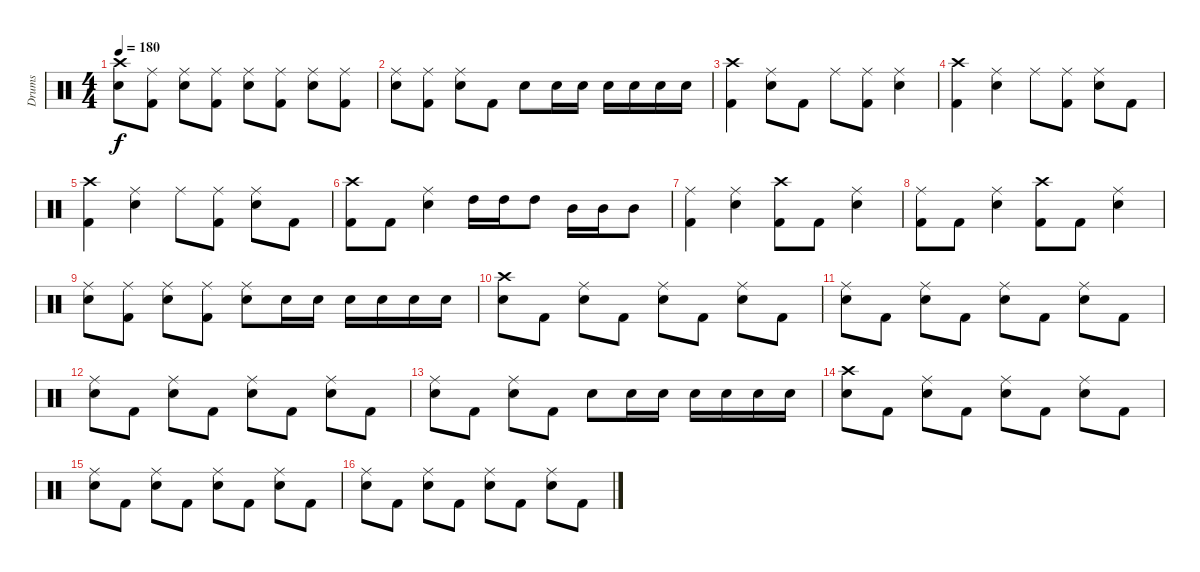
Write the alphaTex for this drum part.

\track ("Drums" "Drums") {instrument percussion}
\staff {score}
\articulation defaults
\ts (4 4)
\tempo 180
\clef neutral
\ks c
("Crash high (hit)" "Electric Snare (hit)").8{dy f} ("Ride (middle)" "Kick (hit) 2").8 ("Ride (middle)" "Electric Snare (hit)").8 ("Ride (middle)" "Kick (hit) 2").8 ("Ride (middle)" "Electric Snare (hit)").8 ("Ride (middle)" "Kick (hit) 2").8 ("Ride (middle)" "Electric Snare (hit)").8 ("Ride (middle)" "Kick (hit) 2").8 |
("Ride (middle)" "Electric Snare (hit)").8 ("Ride (middle)" "Kick (hit) 2").8 ("Ride (middle)" "Electric Snare (hit)").8 "Kick (hit) 2".8 "Electric Snare (hit)".8 "Electric Snare (hit)".16 "Electric Snare (hit)".16 "Electric Snare (hit)".16 "Electric Snare (hit)".16 "Electric Snare (hit)".16 "Electric Snare (hit)".16 |
("Crash high (hit)" "Kick (hit) 2").4 ("Ride (middle)" "Electric Snare (hit)").8 "Kick (hit) 2".8 "Ride (middle)".8 ("Ride (middle)" "Kick (hit) 2").8 ("Ride (middle)" "Electric Snare (hit)").4 |
("Crash high (hit)" "Kick (hit) 2").4 ("Ride (middle)" "Electric Snare (hit)").4 "Ride (middle)".8 ("Ride (middle)" "Kick (hit) 2").8 ("Ride (middle)" "Electric Snare (hit)").8 "Kick (hit) 2".8 |
("Crash high (hit)" "Kick (hit) 2").4 ("Ride (middle)" "Electric Snare (hit)").4 "Ride (middle)".8 ("Ride (middle)" "Kick (hit) 2").8 ("Ride (middle)" "Electric Snare (hit)").8 "Kick (hit) 2".8 |
("Crash high (hit)" "Kick (hit) 2").8 "Kick (hit) 2".8 ("Ride (middle)" "Electric Snare (hit)").4 "High Tom (hit)".16 "High Tom (hit)".16 "High Tom (hit)".8 "Mid Tom (hit)".16 "Mid Tom (hit)".16 "Mid Tom (hit)".8 |
("Ride (middle)" "Kick (hit) 2").4 ("Ride (middle)" "Electric Snare (hit)").4 ("Crash high (hit)" "Kick (hit) 2").8 "Kick (hit) 2".8 ("Ride (middle)" "Electric Snare (hit)").4 |
("Ride (middle)" "Kick (hit) 2").8 "Kick (hit) 2".8 ("Ride (middle)" "Electric Snare (hit)").4 ("Crash high (hit)" "Kick (hit) 2").8 "Kick (hit) 2".8 ("Ride (middle)" "Electric Snare (hit)").4 |
("Ride (middle)" "Electric Snare (hit)").8 ("Ride (middle)" "Kick (hit) 2").8 ("Ride (middle)" "Electric Snare (hit)").8 ("Ride (middle)" "Kick (hit) 2").8 ("Ride (middle)" "Electric Snare (hit)").8 "Electric Snare (hit)".16 "Electric Snare (hit)".16 "Electric Snare (hit)".16 "Electric Snare (hit)".16 "Electric Snare (hit)".16 "Electric Snare (hit)".16 |
("Crash high (hit)" "Electric Snare (hit)").8 "Kick (hit) 2".8 ("Ride (middle)" "Electric Snare (hit)").8 "Kick (hit) 2".8 ("Ride (middle)" "Electric Snare (hit)").8 "Kick (hit) 2".8 ("Ride (middle)" "Electric Snare (hit)").8 "Kick (hit) 2".8 |
("Ride (middle)" "Electric Snare (hit)").8 "Kick (hit) 2".8 ("Ride (middle)" "Electric Snare (hit)").8 "Kick (hit) 2".8 ("Ride (middle)" "Electric Snare (hit)").8 "Kick (hit) 2".8 ("Ride (middle)" "Electric Snare (hit)").8 "Kick (hit) 2".8 |
("Ride (middle)" "Electric Snare (hit)").8 "Kick (hit) 2".8 ("Ride (middle)" "Electric Snare (hit)").8 "Kick (hit) 2".8 ("Ride (middle)" "Electric Snare (hit)").8 "Kick (hit) 2".8 ("Ride (middle)" "Electric Snare (hit)").8 "Kick (hit) 2".8 |
("Ride (middle)" "Electric Snare (hit)").8 "Kick (hit) 2".8 ("Ride (middle)" "Electric Snare (hit)").8 "Kick (hit) 2".8 "Electric Snare (hit)".8 "Electric Snare (hit)".16 "Electric Snare (hit)".16 "Electric Snare (hit)".16 "Electric Snare (hit)".16 "Electric Snare (hit)".16 "Electric Snare (hit)".16 |
("Crash high (hit)" "Electric Snare (hit)").8 "Kick (hit) 2".8 ("Ride (middle)" "Electric Snare (hit)").8 "Kick (hit) 2".8 ("Ride (middle)" "Electric Snare (hit)").8 "Kick (hit) 2".8 ("Ride (middle)" "Electric Snare (hit)").8 "Kick (hit) 2".8 |
("Ride (middle)" "Electric Snare (hit)").8 "Kick (hit) 2".8 ("Ride (middle)" "Electric Snare (hit)").8 "Kick (hit) 2".8 ("Ride (middle)" "Electric Snare (hit)").8 "Kick (hit) 2".8 ("Ride (middle)" "Electric Snare (hit)").8 "Kick (hit) 2".8 |
("Ride (middle)" "Electric Snare (hit)").8 "Kick (hit) 2".8 ("Ride (middle)" "Electric Snare (hit)").8 "Kick (hit) 2".8 ("Ride (middle)" "Electric Snare (hit)").8 "Kick (hit) 2".8 ("Ride (middle)" "Electric Snare (hit)").8 "Kick (hit) 2".8
